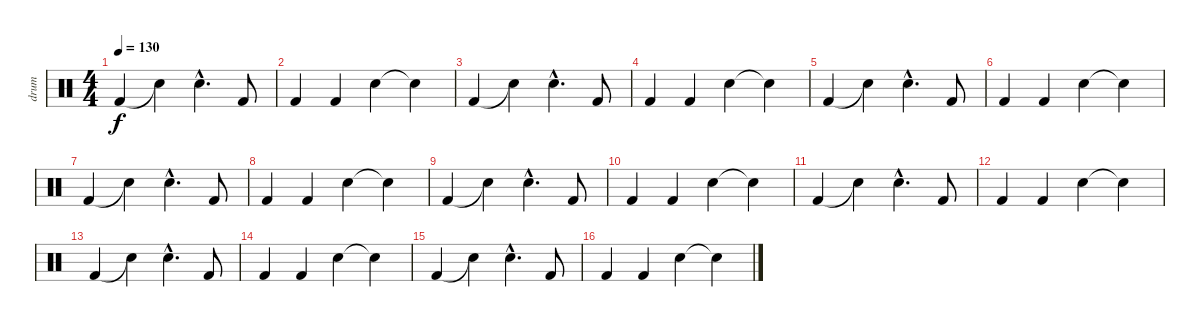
\track ("drum" "drum") {instrument percussion}
\staff {score}
\articulation defaults
\ts (4 4)
\tempo 130
\clef neutral
\ks c "Kick (hit) 2".4{dy f} "Snare (hit)"{t}.4 "Snare (hit) 2"{hac}.4{d} "Kick (hit) 2".8
|
"Kick (hit) 2".4 "Kick (hit) 2".4 "Snare (hit) 2".4 "Snare (hit)"{t}.4 |
"Kick (hit) 2".4 "Snare (hit)"{t}.4 "Snare (hit) 2"{hac}.4{d} "Kick (hit) 2".8 |
"Kick (hit) 2".4 "Kick (hit) 2".4 "Snare (hit) 2".4 "Snare (hit)"{t}.4 |
"Kick (hit) 2".4 "Snare (hit)"{t}.4 "Snare (hit) 2"{hac}.4{d} "Kick (hit) 2".8 |
"Kick (hit) 2".4 "Kick (hit) 2".4 "Snare (hit) 2".4 "Snare (hit)"{t}.4 |
"Kick (hit) 2".4 "Snare (hit)"{t}.4 "Snare (hit) 2"{hac}.4{d} "Kick (hit) 2".8 |
"Kick (hit) 2".4 "Kick (hit) 2".4 "Snare (hit) 2".4 "Snare (hit)"{t}.4 |
"Kick (hit) 2".4 "Snare (hit)"{t}.4 "Snare (hit) 2"{hac}.4{d} "Kick (hit) 2".8 |
"Kick (hit) 2".4 "Kick (hit) 2".4 "Snare (hit) 2".4 "Snare (hit)"{t}.4 |
"Kick (hit) 2".4 "Snare (hit)"{t}.4 "Snare (hit) 2"{hac}.4{d} "Kick (hit) 2".8 |
"Kick (hit) 2".4 "Kick (hit) 2".4 "Snare (hit) 2".4 "Snare (hit)"{t}.4 |
"Kick (hit) 2".4 "Snare (hit)"{t}.4 "Snare (hit) 2"{hac}.4{d} "Kick (hit) 2".8 |
"Kick (hit) 2".4 "Kick (hit) 2".4 "Snare (hit) 2".4 "Snare (hit)"{t}.4 |
"Kick (hit) 2".4 "Snare (hit)"{t}.4 "Snare (hit) 2"{hac}.4{d} "Kick (hit) 2".8 |
"Kick (hit) 2".4 "Kick (hit) 2".4 "Snare (hit) 2".4 "Snare (hit)"{t}.4
